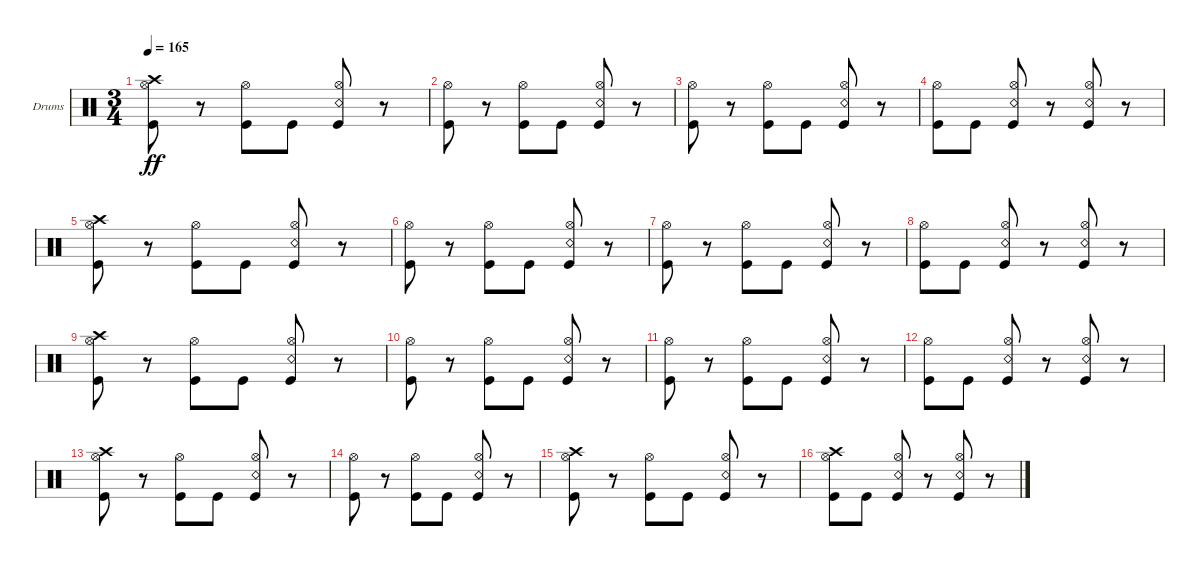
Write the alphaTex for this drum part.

\bracketExtendMode groupsimilarinstruments
\firstSystemTrackNameOrientation horizontal
\otherSystemsTrackNameOrientation horizontal
\track ("Kaleb - Drums" "Drums") {instrument percussion}
\staff {score}
\articulation defaults
\ts (3 4)
\tempo 165
\clef neutral
\ks c
("Kick (hit)" "Hi-Hat (open)" "Crash high (hit)").8{dy ff} r.8 ("Kick (hit)" "Hi-Hat (open)").8 "Kick (hit)".8 ("Kick (hit)" "Snare (rim shot)" "Hi-Hat (open)").8 r.8 |
("Kick (hit)" "Hi-Hat (open)").8 r.8 ("Kick (hit)" "Hi-Hat (open)").8 "Kick (hit)".8 ("Kick (hit)" "Hi-Hat (open)" "Snare (rim shot)").8 r.8 |
("Kick (hit)" "Hi-Hat (open)").8 r.8 ("Kick (hit)" "Hi-Hat (open)").8 "Kick (hit)".8 ("Kick (hit)" "Hi-Hat (open)" "Snare (rim shot)").8 r.8 |
("Kick (hit)" "Hi-Hat (open)").8 "Kick (hit)".8 ("Kick (hit)" "Hi-Hat (open)" "Snare (rim shot)").8 r.8 ("Kick (hit)" "Hi-Hat (open)" "Snare (rim shot)").8 r.8 |
("Kick (hit)" "Hi-Hat (open)" "Crash high (hit)").8 r.8 ("Kick (hit)" "Hi-Hat (open)").8 "Kick (hit)".8 ("Kick (hit)" "Snare (rim shot)" "Hi-Hat (open)").8 r.8 |
("Kick (hit)" "Hi-Hat (open)").8 r.8 ("Kick (hit)" "Hi-Hat (open)").8 "Kick (hit)".8 ("Kick (hit)" "Hi-Hat (open)" "Snare (rim shot)").8 r.8 |
("Kick (hit)" "Hi-Hat (open)").8 r.8 ("Kick (hit)" "Hi-Hat (open)").8 "Kick (hit)".8 ("Kick (hit)" "Hi-Hat (open)" "Snare (rim shot)").8 r.8 |
("Kick (hit)" "Hi-Hat (open)").8 "Kick (hit)".8 ("Kick (hit)" "Hi-Hat (open)" "Snare (rim shot)").8 r.8 ("Kick (hit)" "Hi-Hat (open)" "Snare (rim shot)").8 r.8 |
("Kick (hit)" "Hi-Hat (open)" "Crash high (hit)").8 r.8 ("Kick (hit)" "Hi-Hat (open)").8 "Kick (hit)".8 ("Kick (hit)" "Snare (rim shot)" "Hi-Hat (open)").8 r.8 |
("Kick (hit)" "Hi-Hat (open)").8 r.8 ("Kick (hit)" "Hi-Hat (open)").8 "Kick (hit)".8 ("Kick (hit)" "Hi-Hat (open)" "Snare (rim shot)").8 r.8 |
("Kick (hit)" "Hi-Hat (open)").8 r.8 ("Kick (hit)" "Hi-Hat (open)").8 "Kick (hit)".8 ("Kick (hit)" "Hi-Hat (open)" "Snare (rim shot)").8 r.8 |
("Kick (hit)" "Hi-Hat (open)").8 "Kick (hit)".8 ("Kick (hit)" "Hi-Hat (open)" "Snare (rim shot)").8 r.8 ("Kick (hit)" "Hi-Hat (open)" "Snare (rim shot)").8 r.8 |
("Kick (hit)" "Hi-Hat (open)" "Crash high (hit)").8 r.8 ("Kick (hit)" "Hi-Hat (open)").8 "Kick (hit)".8 ("Kick (hit)" "Snare (rim shot)" "Hi-Hat (open)").8 r.8 |
("Kick (hit)" "Hi-Hat (open)").8 r.8 ("Kick (hit)" "Hi-Hat (open)").8 "Kick (hit)".8 ("Kick (hit)" "Hi-Hat (open)" "Snare (rim shot)").8 r.8 |
("Kick (hit)" "Hi-Hat (open)" "Crash high (hit)").8 r.8 ("Kick (hit)" "Hi-Hat (open)").8 "Kick (hit)".8 ("Kick (hit)" "Hi-Hat (open)" "Snare (rim shot)").8 r.8 |
("Kick (hit)" "Hi-Hat (open)" "Crash high (hit)").8 "Kick (hit)".8 ("Kick (hit)" "Hi-Hat (open)" "Snare (rim shot)").8 r.8 ("Kick (hit)" "Hi-Hat (open)" "Snare (rim shot)").8 r.8
